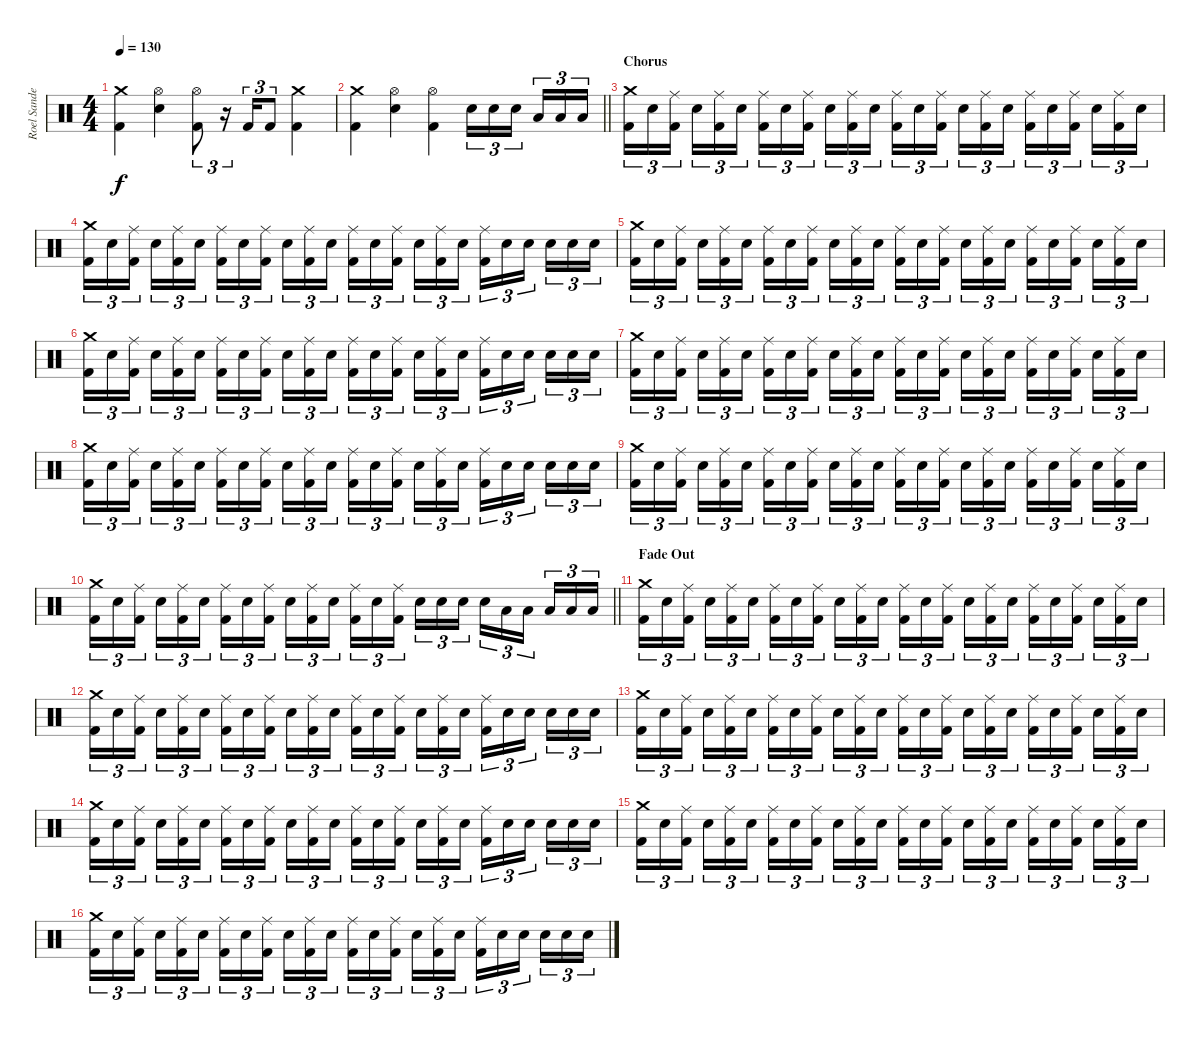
\track ("Roel Sander " "Roel Sande") {instrument percussion}
\staff {score}
\articulation defaults
\ts (4 4)
\tempo 130
\clef neutral
\ks c
("Crash medium (hit)" "Kick (hit) 2").4{dy f} ("Hi-Hat (open)" "Snare (hit) 2").4 ("Hi-Hat (open)" "Kick (hit) 2").8{tu (3 2)} r.16{tu (3 2)} "Kick (hit) 2".16{tu (3 2)} "Kick (hit) 2".8{tu (3 2)} ("Crash medium (hit)" "Kick (hit) 2").4 |
\barLineRight lightlight
("Crash medium (hit)" "Kick (hit) 2").4 ("Hi-Hat (open)" "Snare (hit) 2").4 ("Hi-Hat (open)" "Kick (hit) 2").4 "Snare (hit) 2".16{tu (3 2)} "Snare (hit) 2".16{tu (3 2)} "Snare (hit) 2".16{tu (3 2) beam splitsecondary} "Low Tom (hit)".16{tu (3 2)} "Low Tom (hit)".16{tu (3 2)} "Low Tom (hit)".16{tu (3 2)} |
\section ("" "Chorus")
("Crash medium (hit)" "Kick (hit) 2").16{tu (3 2)} "Snare (hit) 2".16{tu (3 2)} ("Ride (middle)" "Kick (hit) 2").16{tu (3 2) beam splitsecondary} "Snare (hit) 2".16{tu (3 2)} ("Ride (middle)" "Kick (hit) 2").16{tu (3 2)} "Snare (hit) 2".16{tu (3 2)} ("Ride (middle)" "Kick (hit) 2").16{tu (3 2)} "Snare (hit) 2".16{tu (3 2)} ("Ride (middle)" "Kick (hit) 2").16{tu (3 2) beam splitsecondary} "Snare (hit) 2".16{tu (3 2)} ("Ride (middle)" "Kick (hit) 2").16{tu (3 2)} "Snare (hit) 2".16{tu (3 2)} ("Ride (middle)" "Kick (hit) 2").16{tu (3 2)} "Snare (hit) 2".16{tu (3 2)} ("Ride (middle)" "Kick (hit) 2").16{tu (3 2) beam splitsecondary} "Snare (hit) 2".16{tu (3 2)} ("Ride (middle)" "Kick (hit) 2").16{tu (3 2)} "Snare (hit) 2".16{tu (3 2)} ("Ride (middle)" "Kick (hit) 2").16{tu (3 2)} "Snare (hit) 2".16{tu (3 2)} ("Ride (middle)" "Kick (hit) 2").16{tu (3 2) beam splitsecondary} "Snare (hit) 2".16{tu (3 2)} ("Ride (middle)" "Kick (hit) 2").16{tu (3 2)} "Snare (hit) 2".16{tu (3 2)} |
("Crash medium (hit)" "Kick (hit) 2").16{tu (3 2)} "Snare (hit) 2".16{tu (3 2)} ("Ride (middle)" "Kick (hit) 2").16{tu (3 2) beam splitsecondary} "Snare (hit) 2".16{tu (3 2)} ("Ride (middle)" "Kick (hit) 2").16{tu (3 2)} "Snare (hit) 2".16{tu (3 2)} ("Ride (middle)" "Kick (hit) 2").16{tu (3 2)} "Snare (hit) 2".16{tu (3 2)} ("Ride (middle)" "Kick (hit) 2").16{tu (3 2) beam splitsecondary} "Snare (hit) 2".16{tu (3 2)} ("Ride (middle)" "Kick (hit) 2").16{tu (3 2)} "Snare (hit) 2".16{tu (3 2)} ("Ride (middle)" "Kick (hit) 2").16{tu (3 2)} "Snare (hit) 2".16{tu (3 2)} ("Ride (middle)" "Kick (hit) 2").16{tu (3 2) beam splitsecondary} "Snare (hit) 2".16{tu (3 2)} ("Ride (middle)" "Kick (hit) 2").16{tu (3 2)} "Snare (hit) 2".16{tu (3 2)} ("Ride (middle)" "Kick (hit) 2").16{tu (3 2)} "Snare (hit) 2".16{tu (3 2)} "Snare (hit) 2".16{tu (3 2) beam splitsecondary} "Snare (hit) 2".16{tu (3 2)} "Snare (hit) 2".16{tu (3 2)} "Snare (hit) 2".16{tu (3 2)} |
("Crash medium (hit)" "Kick (hit) 2").16{tu (3 2)} "Snare (hit) 2".16{tu (3 2)} ("Ride (middle)" "Kick (hit) 2").16{tu (3 2) beam splitsecondary} "Snare (hit) 2".16{tu (3 2)} ("Ride (middle)" "Kick (hit) 2").16{tu (3 2)} "Snare (hit) 2".16{tu (3 2)} ("Ride (middle)" "Kick (hit) 2").16{tu (3 2)} "Snare (hit) 2".16{tu (3 2)} ("Ride (middle)" "Kick (hit) 2").16{tu (3 2) beam splitsecondary} "Snare (hit) 2".16{tu (3 2)} ("Ride (middle)" "Kick (hit) 2").16{tu (3 2)} "Snare (hit) 2".16{tu (3 2)} ("Ride (middle)" "Kick (hit) 2").16{tu (3 2)} "Snare (hit) 2".16{tu (3 2)} ("Ride (middle)" "Kick (hit) 2").16{tu (3 2) beam splitsecondary} "Snare (hit) 2".16{tu (3 2)} ("Ride (middle)" "Kick (hit) 2").16{tu (3 2)} "Snare (hit) 2".16{tu (3 2)} ("Ride (middle)" "Kick (hit) 2").16{tu (3 2)} "Snare (hit) 2".16{tu (3 2)} ("Ride (middle)" "Kick (hit) 2").16{tu (3 2) beam splitsecondary} "Snare (hit) 2".16{tu (3 2)} ("Ride (middle)" "Kick (hit) 2").16{tu (3 2)} "Snare (hit) 2".16{tu (3 2)} |
("Crash medium (hit)" "Kick (hit) 2").16{tu (3 2)} "Snare (hit) 2".16{tu (3 2)} ("Ride (middle)" "Kick (hit) 2").16{tu (3 2) beam splitsecondary} "Snare (hit) 2".16{tu (3 2)} ("Ride (middle)" "Kick (hit) 2").16{tu (3 2)} "Snare (hit) 2".16{tu (3 2)} ("Ride (middle)" "Kick (hit) 2").16{tu (3 2)} "Snare (hit) 2".16{tu (3 2)} ("Ride (middle)" "Kick (hit) 2").16{tu (3 2) beam splitsecondary} "Snare (hit) 2".16{tu (3 2)} ("Ride (middle)" "Kick (hit) 2").16{tu (3 2)} "Snare (hit) 2".16{tu (3 2)} ("Ride (middle)" "Kick (hit) 2").16{tu (3 2)} "Snare (hit) 2".16{tu (3 2)} ("Ride (middle)" "Kick (hit) 2").16{tu (3 2) beam splitsecondary} "Snare (hit) 2".16{tu (3 2)} ("Ride (middle)" "Kick (hit) 2").16{tu (3 2)} "Snare (hit) 2".16{tu (3 2)} ("Ride (middle)" "Kick (hit) 2").16{tu (3 2)} "Snare (hit) 2".16{tu (3 2)} "Snare (hit) 2".16{tu (3 2) beam splitsecondary} "Snare (hit) 2".16{tu (3 2)} "Snare (hit) 2".16{tu (3 2)} "Snare (hit) 2".16{tu (3 2)} |
("Crash medium (hit)" "Kick (hit) 2").16{tu (3 2)} "Snare (hit) 2".16{tu (3 2)} ("Ride (middle)" "Kick (hit) 2").16{tu (3 2) beam splitsecondary} "Snare (hit) 2".16{tu (3 2)} ("Ride (middle)" "Kick (hit) 2").16{tu (3 2)} "Snare (hit) 2".16{tu (3 2)} ("Ride (middle)" "Kick (hit) 2").16{tu (3 2)} "Snare (hit) 2".16{tu (3 2)} ("Ride (middle)" "Kick (hit) 2").16{tu (3 2) beam splitsecondary} "Snare (hit) 2".16{tu (3 2)} ("Ride (middle)" "Kick (hit) 2").16{tu (3 2)} "Snare (hit) 2".16{tu (3 2)} ("Ride (middle)" "Kick (hit) 2").16{tu (3 2)} "Snare (hit) 2".16{tu (3 2)} ("Ride (middle)" "Kick (hit) 2").16{tu (3 2) beam splitsecondary} "Snare (hit) 2".16{tu (3 2)} ("Ride (middle)" "Kick (hit) 2").16{tu (3 2)} "Snare (hit) 2".16{tu (3 2)} ("Ride (middle)" "Kick (hit) 2").16{tu (3 2)} "Snare (hit) 2".16{tu (3 2)} ("Ride (middle)" "Kick (hit) 2").16{tu (3 2) beam splitsecondary} "Snare (hit) 2".16{tu (3 2)} ("Ride (middle)" "Kick (hit) 2").16{tu (3 2)} "Snare (hit) 2".16{tu (3 2)} |
("Crash medium (hit)" "Kick (hit) 2").16{tu (3 2)} "Snare (hit) 2".16{tu (3 2)} ("Ride (middle)" "Kick (hit) 2").16{tu (3 2) beam splitsecondary} "Snare (hit) 2".16{tu (3 2)} ("Ride (middle)" "Kick (hit) 2").16{tu (3 2)} "Snare (hit) 2".16{tu (3 2)} ("Ride (middle)" "Kick (hit) 2").16{tu (3 2)} "Snare (hit) 2".16{tu (3 2)} ("Ride (middle)" "Kick (hit) 2").16{tu (3 2) beam splitsecondary} "Snare (hit) 2".16{tu (3 2)} ("Ride (middle)" "Kick (hit) 2").16{tu (3 2)} "Snare (hit) 2".16{tu (3 2)} ("Ride (middle)" "Kick (hit) 2").16{tu (3 2)} "Snare (hit) 2".16{tu (3 2)} ("Ride (middle)" "Kick (hit) 2").16{tu (3 2) beam splitsecondary} "Snare (hit) 2".16{tu (3 2)} ("Ride (middle)" "Kick (hit) 2").16{tu (3 2)} "Snare (hit) 2".16{tu (3 2)} ("Ride (middle)" "Kick (hit) 2").16{tu (3 2)} "Snare (hit) 2".16{tu (3 2)} "Snare (hit) 2".16{tu (3 2) beam splitsecondary} "Snare (hit) 2".16{tu (3 2)} "Snare (hit) 2".16{tu (3 2)} "Snare (hit) 2".16{tu (3 2)} |
("Crash medium (hit)" "Kick (hit) 2").16{tu (3 2)} "Snare (hit) 2".16{tu (3 2)} ("Ride (middle)" "Kick (hit) 2").16{tu (3 2) beam splitsecondary} "Snare (hit) 2".16{tu (3 2)} ("Ride (middle)" "Kick (hit) 2").16{tu (3 2)} "Snare (hit) 2".16{tu (3 2)} ("Ride (middle)" "Kick (hit) 2").16{tu (3 2)} "Snare (hit) 2".16{tu (3 2)} ("Ride (middle)" "Kick (hit) 2").16{tu (3 2) beam splitsecondary} "Snare (hit) 2".16{tu (3 2)} ("Ride (middle)" "Kick (hit) 2").16{tu (3 2)} "Snare (hit) 2".16{tu (3 2)} ("Ride (middle)" "Kick (hit) 2").16{tu (3 2)} "Snare (hit) 2".16{tu (3 2)} ("Ride (middle)" "Kick (hit) 2").16{tu (3 2) beam splitsecondary} "Snare (hit) 2".16{tu (3 2)} ("Ride (middle)" "Kick (hit) 2").16{tu (3 2)} "Snare (hit) 2".16{tu (3 2)} ("Ride (middle)" "Kick (hit) 2").16{tu (3 2)} "Snare (hit) 2".16{tu (3 2)} ("Ride (middle)" "Kick (hit) 2").16{tu (3 2) beam splitsecondary} "Snare (hit) 2".16{tu (3 2)} ("Ride (middle)" "Kick (hit) 2").16{tu (3 2)} "Snare (hit) 2".16{tu (3 2)} |
\barLineRight lightlight
("Crash medium (hit)" "Kick (hit) 2").16{tu (3 2)} "Snare (hit) 2".16{tu (3 2)} ("Ride (middle)" "Kick (hit) 2").16{tu (3 2) beam splitsecondary} "Snare (hit) 2".16{tu (3 2)} ("Ride (middle)" "Kick (hit) 2").16{tu (3 2)} "Snare (hit) 2".16{tu (3 2)} ("Ride (middle)" "Kick (hit) 2").16{tu (3 2)} "Snare (hit) 2".16{tu (3 2)} ("Ride (middle)" "Kick (hit) 2").16{tu (3 2) beam splitsecondary} "Snare (hit) 2".16{tu (3 2)} ("Ride (middle)" "Kick (hit) 2").16{tu (3 2)} "Snare (hit) 2".16{tu (3 2)} ("Ride (middle)" "Kick (hit) 2").16{tu (3 2)} "Snare (hit) 2".16{tu (3 2)} ("Ride (middle)" "Kick (hit) 2").16{tu (3 2) beam splitsecondary} "Snare (hit) 2".16{tu (3 2)} "Snare (hit) 2".16{tu (3 2)} "Snare (hit) 2".16{tu (3 2)} "Snare (hit) 2".16{tu (3 2)} "Low Tom (hit)".16{tu (3 2)} "Low Tom (hit)".16{tu (3 2) beam splitsecondary} "Low Tom (hit)".16{tu (3 2)} "Low Tom (hit)".16{tu (3 2)} "Low Tom (hit)".16{tu (3 2)} |
\section ("" "Fade Out")
("Crash medium (hit)" "Kick (hit) 2").16{tu (3 2) volume 15} "Snare (hit) 2".16{tu (3 2)} ("Ride (middle)" "Kick (hit) 2").16{tu (3 2) beam splitsecondary} "Snare (hit) 2".16{tu (3 2)} ("Ride (middle)" "Kick (hit) 2").16{tu (3 2)} "Snare (hit) 2".16{tu (3 2)} ("Ride (middle)" "Kick (hit) 2").16{tu (3 2)} "Snare (hit) 2".16{tu (3 2)} ("Ride (middle)" "Kick (hit) 2").16{tu (3 2) beam splitsecondary} "Snare (hit) 2".16{tu (3 2)} ("Ride (middle)" "Kick (hit) 2").16{tu (3 2)} "Snare (hit) 2".16{tu (3 2)} ("Ride (middle)" "Kick (hit) 2").16{tu (3 2)} "Snare (hit) 2".16{tu (3 2)} ("Ride (middle)" "Kick (hit) 2").16{tu (3 2) beam splitsecondary} "Snare (hit) 2".16{tu (3 2)} ("Ride (middle)" "Kick (hit) 2").16{tu (3 2)} "Snare (hit) 2".16{tu (3 2)} ("Ride (middle)" "Kick (hit) 2").16{tu (3 2)} "Snare (hit) 2".16{tu (3 2)} ("Ride (middle)" "Kick (hit) 2").16{tu (3 2) beam splitsecondary} "Snare (hit) 2".16{tu (3 2)} ("Ride (middle)" "Kick (hit) 2").16{tu (3 2)} "Snare (hit) 2".16{tu (3 2)} |
("Crash medium (hit)" "Kick (hit) 2").16{tu (3 2) volume 12} "Snare (hit) 2".16{tu (3 2)} ("Ride (middle)" "Kick (hit) 2").16{tu (3 2) beam splitsecondary} "Snare (hit) 2".16{tu (3 2)} ("Ride (middle)" "Kick (hit) 2").16{tu (3 2)} "Snare (hit) 2".16{tu (3 2)} ("Ride (middle)" "Kick (hit) 2").16{tu (3 2)} "Snare (hit) 2".16{tu (3 2)} ("Ride (middle)" "Kick (hit) 2").16{tu (3 2) beam splitsecondary} "Snare (hit) 2".16{tu (3 2)} ("Ride (middle)" "Kick (hit) 2").16{tu (3 2)} "Snare (hit) 2".16{tu (3 2)} ("Ride (middle)" "Kick (hit) 2").16{tu (3 2)} "Snare (hit) 2".16{tu (3 2)} ("Ride (middle)" "Kick (hit) 2").16{tu (3 2) beam splitsecondary} "Snare (hit) 2".16{tu (3 2)} ("Ride (middle)" "Kick (hit) 2").16{tu (3 2)} "Snare (hit) 2".16{tu (3 2)} ("Ride (middle)" "Kick (hit) 2").16{tu (3 2)} "Snare (hit) 2".16{tu (3 2)} "Snare (hit) 2".16{tu (3 2) beam splitsecondary} "Snare (hit) 2".16{tu (3 2)} "Snare (hit) 2".16{tu (3 2)} "Snare (hit) 2".16{tu (3 2)} |
("Crash medium (hit)" "Kick (hit) 2").16{tu (3 2) volume 11} "Snare (hit) 2".16{tu (3 2)} ("Ride (middle)" "Kick (hit) 2").16{tu (3 2) beam splitsecondary} "Snare (hit) 2".16{tu (3 2)} ("Ride (middle)" "Kick (hit) 2").16{tu (3 2)} "Snare (hit) 2".16{tu (3 2)} ("Ride (middle)" "Kick (hit) 2").16{tu (3 2)} "Snare (hit) 2".16{tu (3 2)} ("Ride (middle)" "Kick (hit) 2").16{tu (3 2) beam splitsecondary} "Snare (hit) 2".16{tu (3 2)} ("Ride (middle)" "Kick (hit) 2").16{tu (3 2)} "Snare (hit) 2".16{tu (3 2)} ("Ride (middle)" "Kick (hit) 2").16{tu (3 2)} "Snare (hit) 2".16{tu (3 2)} ("Ride (middle)" "Kick (hit) 2").16{tu (3 2) beam splitsecondary} "Snare (hit) 2".16{tu (3 2)} ("Ride (middle)" "Kick (hit) 2").16{tu (3 2)} "Snare (hit) 2".16{tu (3 2)} ("Ride (middle)" "Kick (hit) 2").16{tu (3 2)} "Snare (hit) 2".16{tu (3 2)} ("Ride (middle)" "Kick (hit) 2").16{tu (3 2) beam splitsecondary} "Snare (hit) 2".16{tu (3 2)} ("Ride (middle)" "Kick (hit) 2").16{tu (3 2)} "Snare (hit) 2".16{tu (3 2)} |
("Crash medium (hit)" "Kick (hit) 2").16{tu (3 2) volume 10} "Snare (hit) 2".16{tu (3 2)} ("Ride (middle)" "Kick (hit) 2").16{tu (3 2) beam splitsecondary} "Snare (hit) 2".16{tu (3 2)} ("Ride (middle)" "Kick (hit) 2").16{tu (3 2)} "Snare (hit) 2".16{tu (3 2)} ("Ride (middle)" "Kick (hit) 2").16{tu (3 2)} "Snare (hit) 2".16{tu (3 2)} ("Ride (middle)" "Kick (hit) 2").16{tu (3 2) beam splitsecondary} "Snare (hit) 2".16{tu (3 2)} ("Ride (middle)" "Kick (hit) 2").16{tu (3 2)} "Snare (hit) 2".16{tu (3 2)} ("Ride (middle)" "Kick (hit) 2").16{tu (3 2)} "Snare (hit) 2".16{tu (3 2)} ("Ride (middle)" "Kick (hit) 2").16{tu (3 2) beam splitsecondary} "Snare (hit) 2".16{tu (3 2)} ("Ride (middle)" "Kick (hit) 2").16{tu (3 2)} "Snare (hit) 2".16{tu (3 2)} ("Ride (middle)" "Kick (hit) 2").16{tu (3 2)} "Snare (hit) 2".16{tu (3 2)} "Snare (hit) 2".16{tu (3 2) beam splitsecondary} "Snare (hit) 2".16{tu (3 2)} "Snare (hit) 2".16{tu (3 2)} "Snare (hit) 2".16{tu (3 2)} |
("Crash medium (hit)" "Kick (hit) 2").16{tu (3 2) volume 8} "Snare (hit) 2".16{tu (3 2)} ("Ride (middle)" "Kick (hit) 2").16{tu (3 2) beam splitsecondary} "Snare (hit) 2".16{tu (3 2)} ("Ride (middle)" "Kick (hit) 2").16{tu (3 2)} "Snare (hit) 2".16{tu (3 2)} ("Ride (middle)" "Kick (hit) 2").16{tu (3 2)} "Snare (hit) 2".16{tu (3 2)} ("Ride (middle)" "Kick (hit) 2").16{tu (3 2) beam splitsecondary} "Snare (hit) 2".16{tu (3 2)} ("Ride (middle)" "Kick (hit) 2").16{tu (3 2)} "Snare (hit) 2".16{tu (3 2)} ("Ride (middle)" "Kick (hit) 2").16{tu (3 2)} "Snare (hit) 2".16{tu (3 2)} ("Ride (middle)" "Kick (hit) 2").16{tu (3 2) beam splitsecondary} "Snare (hit) 2".16{tu (3 2)} ("Ride (middle)" "Kick (hit) 2").16{tu (3 2)} "Snare (hit) 2".16{tu (3 2)} ("Ride (middle)" "Kick (hit) 2").16{tu (3 2)} "Snare (hit) 2".16{tu (3 2)} ("Ride (middle)" "Kick (hit) 2").16{tu (3 2) beam splitsecondary} "Snare (hit) 2".16{tu (3 2)} ("Ride (middle)" "Kick (hit) 2").16{tu (3 2)} "Snare (hit) 2".16{tu (3 2)} |
("Crash medium (hit)" "Kick (hit) 2").16{tu (3 2) volume 6} "Snare (hit) 2".16{tu (3 2)} ("Ride (middle)" "Kick (hit) 2").16{tu (3 2) beam splitsecondary} "Snare (hit) 2".16{tu (3 2)} ("Ride (middle)" "Kick (hit) 2").16{tu (3 2)} "Snare (hit) 2".16{tu (3 2)} ("Ride (middle)" "Kick (hit) 2").16{tu (3 2)} "Snare (hit) 2".16{tu (3 2)} ("Ride (middle)" "Kick (hit) 2").16{tu (3 2) beam splitsecondary} "Snare (hit) 2".16{tu (3 2)} ("Ride (middle)" "Kick (hit) 2").16{tu (3 2)} "Snare (hit) 2".16{tu (3 2)} ("Ride (middle)" "Kick (hit) 2").16{tu (3 2)} "Snare (hit) 2".16{tu (3 2)} ("Ride (middle)" "Kick (hit) 2").16{tu (3 2) beam splitsecondary} "Snare (hit) 2".16{tu (3 2)} ("Ride (middle)" "Kick (hit) 2").16{tu (3 2)} "Snare (hit) 2".16{tu (3 2)} ("Ride (middle)" "Kick (hit) 2").16{tu (3 2)} "Snare (hit) 2".16{tu (3 2)} "Snare (hit) 2".16{tu (3 2) beam splitsecondary} "Snare (hit) 2".16{tu (3 2)} "Snare (hit) 2".16{tu (3 2)} "Snare (hit) 2".16{tu (3 2)}
